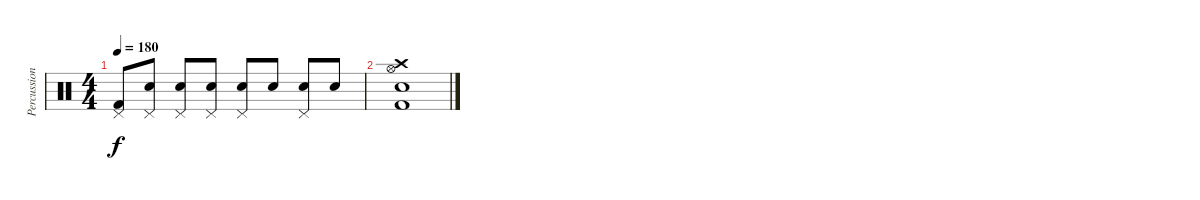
\track ("Percussion" "Percussion") {instrument percussion}
\staff {score}
\articulation defaults
\ts (4 4)
\tempo 180
\clef neutral
\ks c
("Pedal Hi-Hat (hit)" "Kick (hit) 2").8{dy f} ("Pedal Hi-Hat (hit)" "Electric Snare (hit)").8 ("Pedal Hi-Hat (hit)" "Electric Snare (hit)").8 ("Pedal Hi-Hat (hit)" "Electric Snare (hit)").8 ("Pedal Hi-Hat (hit)" "Electric Snare (hit)").8 "Electric Snare (hit)".8 ("Pedal Hi-Hat (hit)" "Electric Snare (hit)").8 "Electric Snare (hit)".8 |
("Crash high (hit)" "Hi-Hat (open)" "Electric Snare (hit)" "Kick (hit) 2").1
